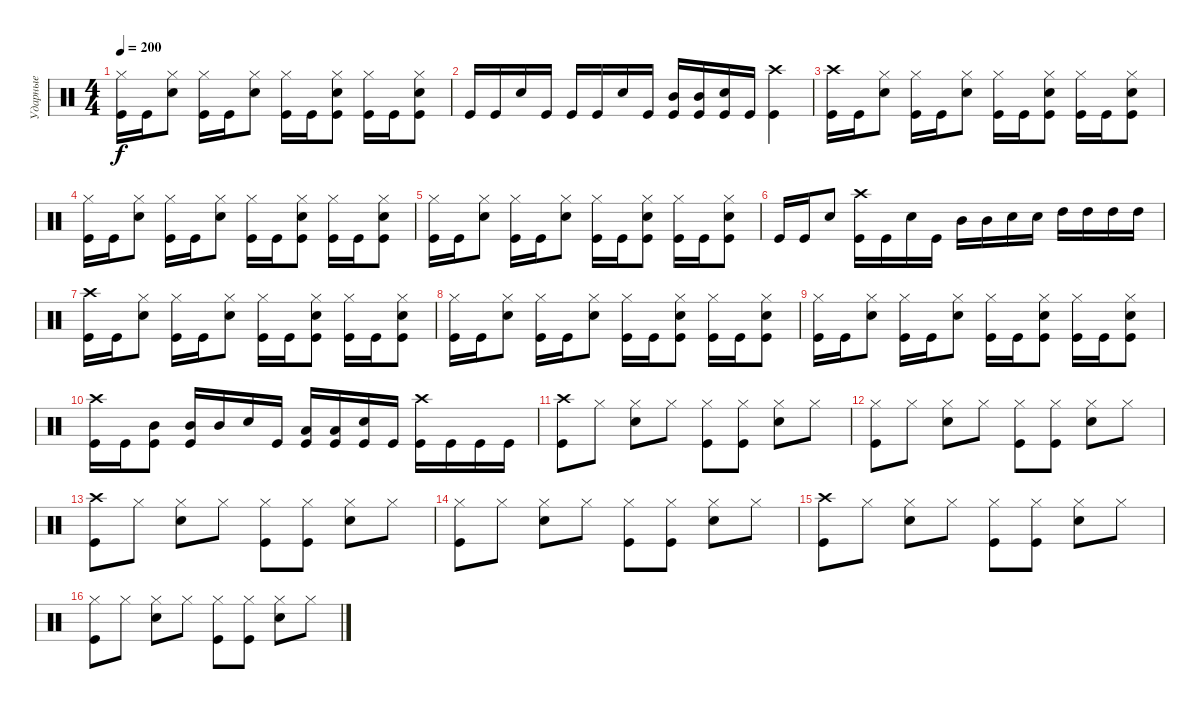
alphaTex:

\track ("Ударные" "Ударные") {instrument percussion}
\staff {score}
\articulation defaults
\ts (4 4)
\tempo 200
\clef neutral
\ks c
("Hi-Hat (closed)" "Kick (hit)").16{dy f} "Kick (hit)".16 ("Hi-Hat (closed)" "Electric Snare (hit)").8 ("Hi-Hat (closed)" "Kick (hit)").16 "Kick (hit)".16 ("Hi-Hat (closed)" "Electric Snare (hit)").8 ("Hi-Hat (closed)" "Kick (hit)").16 "Kick (hit)".16 ("Hi-Hat (closed)" "Electric Snare (hit)" "Kick (hit)").8 ("Hi-Hat (closed)" "Kick (hit)").16 "Kick (hit)".16 ("Hi-Hat (closed)" "Electric Snare (hit)" "Kick (hit)").8 |
"Kick (hit)".16 "Kick (hit)".16 "Electric Snare (hit)".16 "Kick (hit)".16 "Kick (hit)".16 "Kick (hit)".16 "Electric Snare (hit)".16 "Kick (hit)".16 ("Mid Tom (hit)" "Kick (hit)").16 ("Mid Tom (hit)" "Kick (hit)").16 ("Electric Snare (hit)" "Kick (hit)").16 "Kick (hit)".16 ("Crash high (hit)" "Kick (hit)").4 |
("Crash high (hit)" "Kick (hit)").16 "Kick (hit)".16 ("Hi-Hat (closed)" "Electric Snare (hit)").8 ("Hi-Hat (closed)" "Kick (hit)").16 "Kick (hit)".16 ("Hi-Hat (closed)" "Electric Snare (hit)").8 ("Hi-Hat (closed)" "Kick (hit)").16 "Kick (hit)".16 ("Hi-Hat (closed)" "Electric Snare (hit)" "Kick (hit)").8 ("Hi-Hat (closed)" "Kick (hit)").16 "Kick (hit)".16 ("Hi-Hat (closed)" "Electric Snare (hit)" "Kick (hit)").8 |
("Hi-Hat (closed)" "Kick (hit)").16 "Kick (hit)".16 ("Hi-Hat (closed)" "Electric Snare (hit)").8 ("Hi-Hat (closed)" "Kick (hit)").16 "Kick (hit)".16 ("Hi-Hat (closed)" "Electric Snare (hit)").8 ("Hi-Hat (closed)" "Kick (hit)").16 "Kick (hit)".16 ("Hi-Hat (closed)" "Electric Snare (hit)" "Kick (hit)").8 ("Hi-Hat (closed)" "Kick (hit)").16 "Kick (hit)".16 ("Hi-Hat (closed)" "Electric Snare (hit)" "Kick (hit)").8 |
("Hi-Hat (closed)" "Kick (hit)").16 "Kick (hit)".16 ("Hi-Hat (closed)" "Electric Snare (hit)").8 ("Hi-Hat (closed)" "Kick (hit)").16 "Kick (hit)".16 ("Hi-Hat (closed)" "Electric Snare (hit)").8 ("Hi-Hat (closed)" "Kick (hit)").16 "Kick (hit)".16 ("Hi-Hat (closed)" "Electric Snare (hit)" "Kick (hit)").8 ("Hi-Hat (closed)" "Kick (hit)").16 "Kick (hit)".16 ("Hi-Hat (closed)" "Electric Snare (hit)" "Kick (hit)").8 |
"Kick (hit)".16 "Kick (hit)".16 "Electric Snare (hit)".8 ("Crash high (hit)" "Kick (hit)").16 "Kick (hit)".16 "Electric Snare (hit)".16 "Kick (hit)".16 "Mid Tom (hit)".16 "Mid Tom (hit)".16 "Electric Snare (hit)".16 "Electric Snare (hit)".16 "High Tom (hit)".16 "High Tom (hit)".16 "High Tom (hit)".16 "High Tom (hit)".16 |
("Crash high (hit)" "Kick (hit)").16 "Kick (hit)".16 ("Hi-Hat (closed)" "Electric Snare (hit)").8 ("Hi-Hat (closed)" "Kick (hit)").16 "Kick (hit)".16 ("Hi-Hat (closed)" "Electric Snare (hit)").8 ("Hi-Hat (closed)" "Kick (hit)").16 "Kick (hit)".16 ("Hi-Hat (closed)" "Electric Snare (hit)" "Kick (hit)").8 ("Hi-Hat (closed)" "Kick (hit)").16 "Kick (hit)".16 ("Hi-Hat (closed)" "Electric Snare (hit)" "Kick (hit)").8 |
("Hi-Hat (closed)" "Kick (hit)").16 "Kick (hit)".16 ("Hi-Hat (closed)" "Electric Snare (hit)").8 ("Hi-Hat (closed)" "Kick (hit)").16 "Kick (hit)".16 ("Hi-Hat (closed)" "Electric Snare (hit)").8 ("Hi-Hat (closed)" "Kick (hit)").16 "Kick (hit)".16 ("Hi-Hat (closed)" "Electric Snare (hit)" "Kick (hit)").8 ("Hi-Hat (closed)" "Kick (hit)").16 "Kick (hit)".16 ("Hi-Hat (closed)" "Electric Snare (hit)" "Kick (hit)").8 |
("Hi-Hat (closed)" "Kick (hit)").16 "Kick (hit)".16 ("Hi-Hat (closed)" "Electric Snare (hit)").8 ("Hi-Hat (closed)" "Kick (hit)").16 "Kick (hit)".16 ("Hi-Hat (closed)" "Electric Snare (hit)").8 ("Hi-Hat (closed)" "Kick (hit)").16 "Kick (hit)".16 ("Hi-Hat (closed)" "Electric Snare (hit)" "Kick (hit)").8 ("Hi-Hat (closed)" "Kick (hit)").16 "Kick (hit)".16 ("Hi-Hat (closed)" "Electric Snare (hit)" "Kick (hit)").8 |
("Crash high (hit)" "Kick (hit)").16 "Kick (hit)".16 ("Mid Tom (hit)" "Kick (hit)").8 ("Mid Tom (hit)" "Kick (hit)").16 "Mid Tom (hit)".16 "Electric Snare (hit)".16 "Kick (hit)".16 ("Low Tom (hit)" "Kick (hit)").16 ("Low Tom (hit)" "Kick (hit)").16 ("Electric Snare (hit)" "Kick (hit)").16 "Kick (hit)".16 ("Crash high (hit)" "Kick (hit)").16 "Kick (hit)".16 "Kick (hit)".16 "Kick (hit)".16 |
("Crash high (hit)" "Kick (hit)").8 "Hi-Hat (closed)".8 ("Hi-Hat (closed)" "Electric Snare (hit)").8 "Hi-Hat (closed)".8 ("Hi-Hat (closed)" "Kick (hit)").8 ("Hi-Hat (closed)" "Kick (hit)").8 ("Hi-Hat (closed)" "Electric Snare (hit)").8 "Hi-Hat (closed)".8 |
("Hi-Hat (closed)" "Kick (hit)").8 "Hi-Hat (closed)".8 ("Hi-Hat (closed)" "Electric Snare (hit)").8 "Hi-Hat (closed)".8 ("Hi-Hat (closed)" "Kick (hit)").8 ("Hi-Hat (closed)" "Kick (hit)").8 ("Hi-Hat (closed)" "Electric Snare (hit)").8 "Hi-Hat (closed)".8 |
("Crash high (hit)" "Kick (hit)").8 "Hi-Hat (closed)".8 ("Hi-Hat (closed)" "Electric Snare (hit)").8 "Hi-Hat (closed)".8 ("Hi-Hat (closed)" "Kick (hit)").8 ("Hi-Hat (closed)" "Kick (hit)").8 ("Hi-Hat (closed)" "Electric Snare (hit)").8 "Hi-Hat (closed)".8 |
("Hi-Hat (closed)" "Kick (hit)").8 "Hi-Hat (closed)".8 ("Hi-Hat (closed)" "Electric Snare (hit)").8 "Hi-Hat (closed)".8 ("Hi-Hat (closed)" "Kick (hit)").8 ("Hi-Hat (closed)" "Kick (hit)").8 ("Hi-Hat (closed)" "Electric Snare (hit)").8 "Hi-Hat (closed)".8 |
("Crash high (hit)" "Kick (hit)").8 "Hi-Hat (closed)".8 ("Hi-Hat (closed)" "Electric Snare (hit)").8 "Hi-Hat (closed)".8 ("Hi-Hat (closed)" "Kick (hit)").8 ("Hi-Hat (closed)" "Kick (hit)").8 ("Hi-Hat (closed)" "Electric Snare (hit)").8 "Hi-Hat (closed)".8 |
("Hi-Hat (closed)" "Kick (hit)").8 "Hi-Hat (closed)".8 ("Hi-Hat (closed)" "Electric Snare (hit)").8 "Hi-Hat (closed)".8 ("Hi-Hat (closed)" "Kick (hit)").8 ("Hi-Hat (closed)" "Kick (hit)").8 ("Hi-Hat (closed)" "Electric Snare (hit)").8 "Hi-Hat (closed)".8
